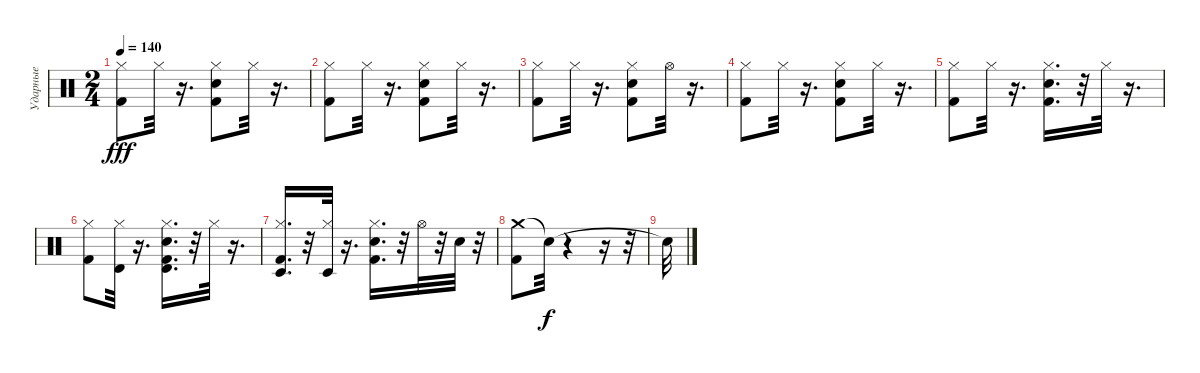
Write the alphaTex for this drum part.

\track ("Ударные" "Ударные") {instrument percussion}
\staff {score}
\articulation defaults
\ts (2 4)
\tempo 140
\clef neutral
\ks c
("Kick (hit) 2" "Hi-Hat (closed)").8{dy fff} "Hi-Hat (closed)".32 r.16{d} ("Hi-Hat (closed)" "Snare (hit) 2" "Kick (hit) 2").8 "Hi-Hat (closed)".32 r.16{d} |
("Kick (hit) 2" "Hi-Hat (closed)").8 "Hi-Hat (closed)".32 r.16{d} ("Snare (hit) 2" "Kick (hit) 2" "Hi-Hat (closed)").8 "Hi-Hat (closed)".32 r.16{d} |
("Kick (hit) 2" "Hi-Hat (closed)").8 "Hi-Hat (closed)".32 r.16{d} ("Kick (hit) 2" "Hi-Hat (closed)" "Snare (hit) 2").8 "Hi-Hat (open)".32 r.16{d} |
("Kick (hit) 2" "Hi-Hat (closed)").8 "Hi-Hat (closed)".32 r.16{d} ("Snare (hit) 2" "Kick (hit) 2" "Hi-Hat (closed)").8 "Hi-Hat (closed)".32 r.16{d} |
("Kick (hit) 2" "Hi-Hat (closed)").8 "Hi-Hat (closed)".32 r.16{d} ("Snare (hit) 2" "Kick (hit) 2" "Hi-Hat (closed)").16{d} r.32 "Hi-Hat (closed)".32 r.16{d} |
("Kick (hit) 2" "Hi-Hat (closed)").8 ("Timbale high (hit)" "Hi-Hat (closed)").32 r.16{d} ("Kick (hit) 2" "Timbale high (hit)" "Snare (hit) 2" "Hi-Hat (closed)").16{d} r.32 "Hi-Hat (closed)".32 r.16{d} |
("Kick (hit) 2" "Timbale low (hit)" "Hi-Hat (closed)").16{d} r.32 ("Timbale low (hit)" "Hi-Hat (closed)").32 r.16{d} ("Snare (hit) 2" "Kick (hit) 2" "Hi-Hat (closed)").16{d} r.32 "Hi-Hat (open)".32 r.32 "Snare (hit) 2".32 r.32 |
("Crash medium (hit)" "Kick (hit) 2").8 "Snare (hit)"{t}.32{dy f} r.4 r.16 r.32 |
"Snare (hit)"{t}.32
